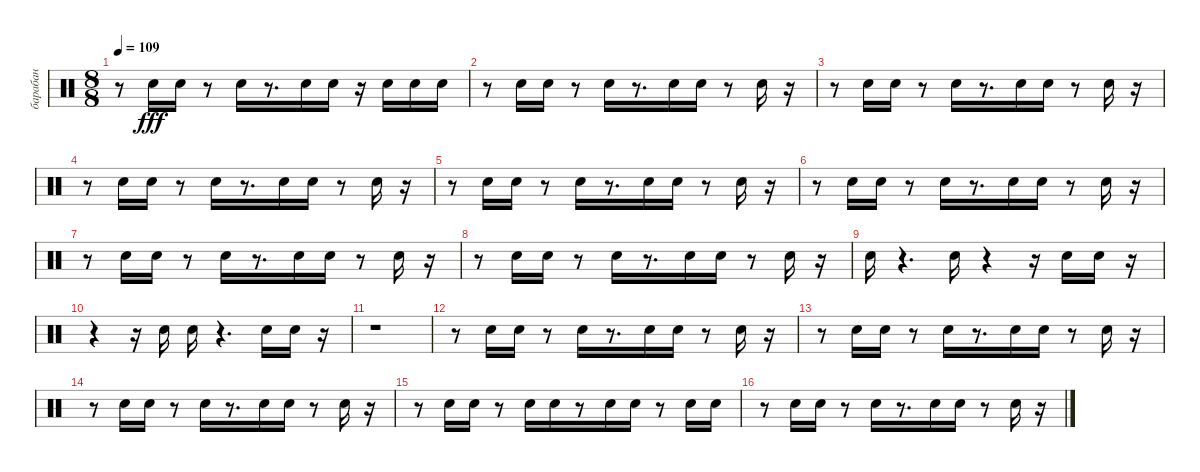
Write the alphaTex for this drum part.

\track ("барабан" "барабан") {instrument percussion}
\staff {score}
\articulation defaults
\ts (8 8)
\tempo 109
\clef neutral
\ks c
r.8{dy fff} "Electric Snare (hit)".16 "Electric Snare (hit)".16 r.8 "Electric Snare (hit)".16 r.8{d} "Electric Snare (hit)".16 "Electric Snare (hit)".16 r.16 "Electric Snare (hit)".16 "Electric Snare (hit)".16 "Electric Snare (hit)".16 |
r.8 "Electric Snare (hit)".16 "Electric Snare (hit)".16 r.8 "Electric Snare (hit)".16 r.8{d} "Electric Snare (hit)".16 "Electric Snare (hit)".16 r.8 "Electric Snare (hit)".16 r.16 |
r.8 "Electric Snare (hit)".16 "Electric Snare (hit)".16 r.8 "Electric Snare (hit)".16 r.8{d} "Electric Snare (hit)".16 "Electric Snare (hit)".16 r.8 "Electric Snare (hit)".16 r.16 |
r.8 "Electric Snare (hit)".16 "Electric Snare (hit)".16 r.8 "Electric Snare (hit)".16 r.8{d} "Electric Snare (hit)".16 "Electric Snare (hit)".16 r.8 "Electric Snare (hit)".16 r.16 |
r.8 "Electric Snare (hit)".16 "Electric Snare (hit)".16 r.8 "Electric Snare (hit)".16 r.8{d} "Electric Snare (hit)".16 "Electric Snare (hit)".16 r.8 "Electric Snare (hit)".16 r.16 |
r.8 "Electric Snare (hit)".16 "Electric Snare (hit)".16 r.8 "Electric Snare (hit)".16 r.8{d} "Electric Snare (hit)".16 "Electric Snare (hit)".16 r.8 "Electric Snare (hit)".16 r.16 |
r.8 "Electric Snare (hit)".16 "Electric Snare (hit)".16 r.8 "Electric Snare (hit)".16 r.8{d} "Electric Snare (hit)".16 "Electric Snare (hit)".16 r.8 "Electric Snare (hit)".16 r.16 |
r.8 "Electric Snare (hit)".16 "Electric Snare (hit)".16 r.8 "Electric Snare (hit)".16 r.8{d} "Electric Snare (hit)".16 "Electric Snare (hit)".16 r.8 "Electric Snare (hit)".16 r.16 |
"Electric Snare (hit)".16 r.4{d} "Electric Snare (hit)".16 r.4 r.16 "Electric Snare (hit)".16 "Electric Snare (hit)".16 r.16 |
r.4 r.16 "Electric Snare (hit)".16 "Electric Snare (hit)".16 r.4{d} "Electric Snare (hit)".16 "Electric Snare (hit)".16 r.16 |
r.1 |
r.8 "Electric Snare (hit)".16 "Electric Snare (hit)".16 r.8 "Electric Snare (hit)".16 r.8{d} "Electric Snare (hit)".16 "Electric Snare (hit)".16 r.8 "Electric Snare (hit)".16 r.16 |
r.8 "Electric Snare (hit)".16 "Electric Snare (hit)".16 r.8 "Electric Snare (hit)".16 r.8{d} "Electric Snare (hit)".16 "Electric Snare (hit)".16 r.8 "Electric Snare (hit)".16 r.16 |
r.8 "Electric Snare (hit)".16 "Electric Snare (hit)".16 r.8 "Electric Snare (hit)".16 r.8{d} "Electric Snare (hit)".16 "Electric Snare (hit)".16 r.8 "Electric Snare (hit)".16 r.16 |
r.8 "Electric Snare (hit)".16 "Electric Snare (hit)".16 r.8 "Electric Snare (hit)".16 "Electric Snare (hit)".16 r.8 "Electric Snare (hit)".16 "Electric Snare (hit)".16 r.8 "Electric Snare (hit)".16 "Electric Snare (hit)".16 |
r.8 "Electric Snare (hit)".16 "Electric Snare (hit)".16 r.8 "Electric Snare (hit)".16 r.8{d} "Electric Snare (hit)".16 "Electric Snare (hit)".16 r.8 "Electric Snare (hit)".16 r.16
